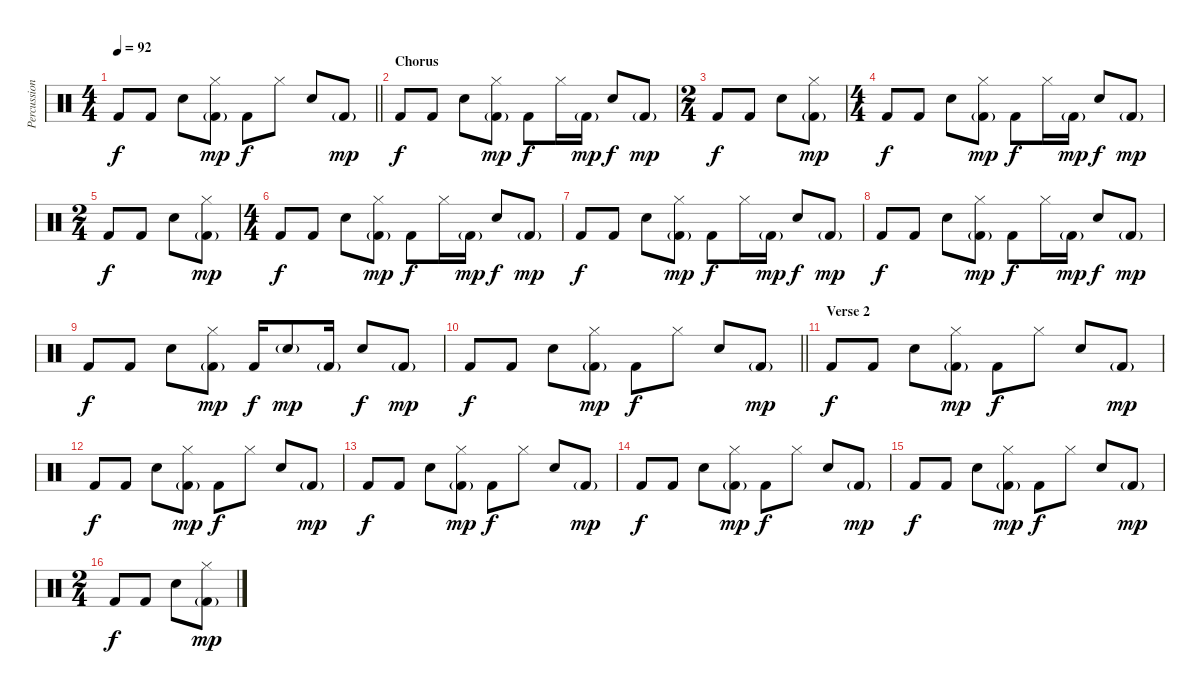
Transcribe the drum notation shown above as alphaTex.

\track ("Percussion" "Percussion") {instrument percussion}
\staff {score}
\articulation defaults
\ts (4 4)
\tempo 92
\clef neutral
\barLineRight lightlight
\ks c "Kick (hit) 2".8{dy f} "Kick (hit) 2".8 "Snare (hit) 2".8
("Hi-Hat (closed)" "Kick (hit) 2"{g}).8{dy mp} "Kick (hit) 2".8{dy f} "Hi-Hat (closed)".8 "Snare (hit) 2".8 "Kick (hit) 2"{g}.8{dy mp} |
\section ("" "Chorus")
"Kick (hit) 2".8{dy f} "Kick (hit) 2".8 "Snare (hit) 2".8 ("Hi-Hat (closed)" "Kick (hit) 2"{g}).8{dy mp} "Kick (hit) 2".8{dy f} "Hi-Hat (closed)".16 "Kick (hit) 2"{g}.16{dy mp} "Snare (hit) 2".8{dy f} "Kick (hit) 2"{g}.8{dy mp} |
\ts (2 4)
"Kick (hit) 2".8{dy f} "Kick (hit) 2".8 "Snare (hit) 2".8 ("Hi-Hat (closed)" "Kick (hit) 2"{g}).8{dy mp} |
\ts (4 4)
"Kick (hit) 2".8{dy f} "Kick (hit) 2".8 "Snare (hit) 2".8 ("Hi-Hat (closed)" "Kick (hit) 2"{g}).8{dy mp} "Kick (hit) 2".8{dy f} "Hi-Hat (closed)".16 "Kick (hit) 2"{g}.16{dy mp} "Snare (hit) 2".8{dy f} "Kick (hit) 2"{g}.8{dy mp} |
\ts (2 4)
"Kick (hit) 2".8{dy f} "Kick (hit) 2".8 "Snare (hit) 2".8 ("Hi-Hat (closed)" "Kick (hit) 2"{g}).8{dy mp} |
\ts (4 4)
"Kick (hit) 2".8{dy f} "Kick (hit) 2".8 "Snare (hit) 2".8 ("Hi-Hat (closed)" "Kick (hit) 2"{g}).8{dy mp} "Kick (hit) 2".8{dy f} "Hi-Hat (closed)".16 "Kick (hit) 2"{g}.16{dy mp} "Snare (hit) 2".8{dy f} "Kick (hit) 2"{g}.8{dy mp} |
"Kick (hit) 2".8{dy f} "Kick (hit) 2".8 "Snare (hit) 2".8 ("Hi-Hat (closed)" "Kick (hit) 2"{g}).8{dy mp} "Kick (hit) 2".8{dy f} "Hi-Hat (closed)".16 "Kick (hit) 2"{g}.16{dy mp} "Snare (hit) 2".8{dy f} "Kick (hit) 2"{g}.8{dy mp} |
"Kick (hit) 2".8{dy f} "Kick (hit) 2".8 "Snare (hit) 2".8 ("Hi-Hat (closed)" "Kick (hit) 2"{g}).8{dy mp} "Kick (hit) 2".8{dy f} "Hi-Hat (closed)".16 "Kick (hit) 2"{g}.16{dy mp} "Snare (hit) 2".8{dy f} "Kick (hit) 2"{g}.8{dy mp} |
"Kick (hit) 2".8{dy f} "Kick (hit) 2".8 "Snare (hit) 2".8 ("Hi-Hat (closed)" "Kick (hit) 2"{g}).8{dy mp} "Kick (hit) 2".16{dy f} "Snare (hit) 2"{g}.8{dy mp} "Kick (hit) 2"{g}.16 "Snare (hit) 2".8{dy f} "Kick (hit) 2"{g}.8{dy mp} |
\barLineRight lightlight "Kick (hit) 2".8{dy f} "Kick (hit) 2".8 "Snare (hit) 2".8
("Hi-Hat (closed)" "Kick (hit) 2"{g}).8{dy mp} "Kick (hit) 2".8{dy f} "Hi-Hat (closed)".8 "Snare (hit) 2".8 "Kick (hit) 2"{g}.8{dy mp} |
\section ("" "Verse 2")
"Kick (hit) 2".8{dy f} "Kick (hit) 2".8 "Snare (hit) 2".8 ("Hi-Hat (closed)" "Kick (hit) 2"{g}).8{dy mp} "Kick (hit) 2".8{dy f} "Hi-Hat (closed)".8 "Snare (hit) 2".8 "Kick (hit) 2"{g}.8{dy mp} |
"Kick (hit) 2".8{dy f} "Kick (hit) 2".8 "Snare (hit) 2".8 ("Hi-Hat (closed)" "Kick (hit) 2"{g}).8{dy mp} "Kick (hit) 2".8{dy f} "Hi-Hat (closed)".8 "Snare (hit) 2".8 "Kick (hit) 2"{g}.8{dy mp} |
"Kick (hit) 2".8{dy f} "Kick (hit) 2".8 "Snare (hit) 2".8 ("Hi-Hat (closed)" "Kick (hit) 2"{g}).8{dy mp} "Kick (hit) 2".8{dy f} "Hi-Hat (closed)".8 "Snare (hit) 2".8 "Kick (hit) 2"{g}.8{dy mp} |
"Kick (hit) 2".8{dy f} "Kick (hit) 2".8 "Snare (hit) 2".8 ("Hi-Hat (closed)" "Kick (hit) 2"{g}).8{dy mp} "Kick (hit) 2".8{dy f} "Hi-Hat (closed)".8 "Snare (hit) 2".8 "Kick (hit) 2"{g}.8{dy mp} |
"Kick (hit) 2".8{dy f} "Kick (hit) 2".8 "Snare (hit) 2".8 ("Hi-Hat (closed)" "Kick (hit) 2"{g}).8{dy mp} "Kick (hit) 2".8{dy f} "Hi-Hat (closed)".8 "Snare (hit) 2".8 "Kick (hit) 2"{g}.8{dy mp} |
\ts (2 4)
"Kick (hit) 2".8{dy f} "Kick (hit) 2".8 "Snare (hit) 2".8 ("Hi-Hat (closed)" "Kick (hit) 2"{g}).8{dy mp}
